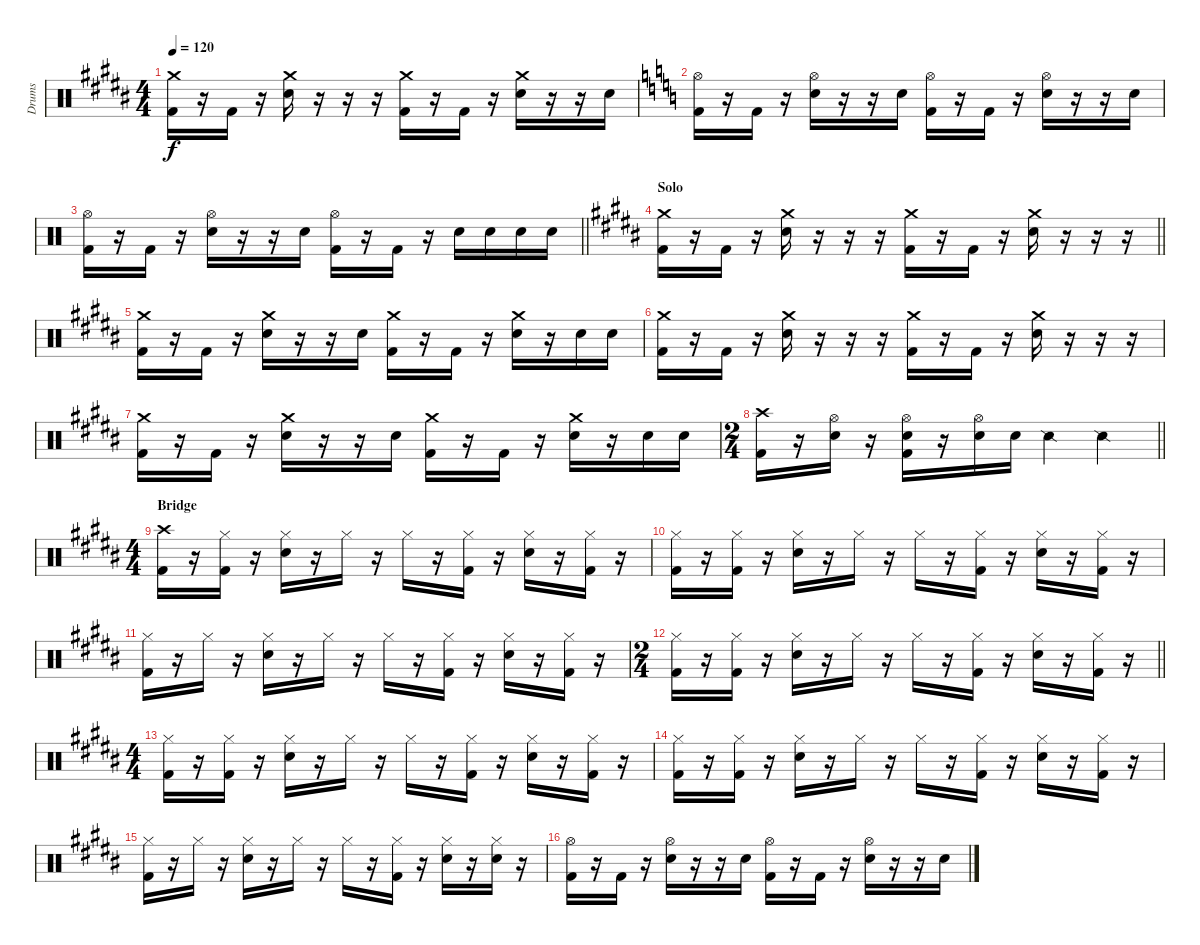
\track ("Drums" "Drums") {instrument percussion}
\staff {score}
\articulation defaults
\ts (4 4)
\tempo 120
\clef neutral
\ks b
("Crash medium (hit)" "Kick (hit) 2").16{dy f} r.16 "Kick (hit) 2".16 r.16 ("Crash medium (hit)" "Snare (hit) 2").16 r.16 r.16 r.16 ("Crash medium (hit)" "Kick (hit) 2").16 r.16 "Kick (hit) 2".16 r.16 ("Crash medium (hit)" "Snare (hit) 2").16 r.16 r.16 "Snare (hit) 2".16 |
\ks c
("Hi-Hat (open)" "Kick (hit) 2").16 r.16 "Kick (hit) 2".16 r.16 ("Hi-Hat (open)" "Snare (hit) 2").16 r.16 r.16 "Snare (hit) 2".16 ("Hi-Hat (open)" "Kick (hit) 2").16 r.16 "Kick (hit) 2".16 r.16 ("Hi-Hat (open)" "Snare (hit) 2").16 r.16 r.16 "Snare (hit) 2".16 |
\barLineRight lightlight
("Hi-Hat (open)" "Kick (hit) 2").16 r.16 "Kick (hit) 2".16 r.16 ("Hi-Hat (open)" "Snare (hit) 2").16 r.16 r.16 "Snare (hit) 2".16 ("Hi-Hat (open)" "Kick (hit) 2").16 r.16 "Kick (hit) 2".16 r.16 "Snare (hit) 2".16 "Snare (hit) 2".16 "Snare (hit) 2".16 "Snare (hit) 2".16 |
\section ("" "Solo")
\barLineRight lightlight
\ks b
("Crash medium (hit)" "Kick (hit) 2").16 r.16 "Kick (hit) 2".16 r.16 ("Crash medium (hit)" "Snare (hit) 2").16 r.16 r.16 r.16 ("Crash medium (hit)" "Kick (hit) 2").16 r.16 "Kick (hit) 2".16 r.16 ("Crash medium (hit)" "Snare (hit) 2").16 r.16 r.16 r.16 |
("Crash medium (hit)" "Kick (hit) 2").16 r.16 "Kick (hit) 2".16 r.16 ("Crash medium (hit)" "Snare (hit) 2").16 r.16 r.16 "Snare (hit) 2".16 ("Crash medium (hit)" "Kick (hit) 2").16 r.16 "Kick (hit) 2".16 r.16 ("Crash medium (hit)" "Snare (hit) 2").16 r.16 "Snare (hit) 2".16 "Snare (hit) 2".16 |
("Crash medium (hit)" "Kick (hit) 2").16 r.16 "Kick (hit) 2".16 r.16 ("Crash medium (hit)" "Snare (hit) 2").16 r.16 r.16 r.16 ("Crash medium (hit)" "Kick (hit) 2").16 r.16 "Kick (hit) 2".16 r.16 ("Crash medium (hit)" "Snare (hit) 2").16 r.16 r.16 r.16 |
("Crash medium (hit)" "Kick (hit) 2").16 r.16 "Kick (hit) 2".16 r.16 ("Crash medium (hit)" "Snare (hit) 2").16 r.16 r.16 "Snare (hit) 2".16 ("Crash medium (hit)" "Kick (hit) 2").16 r.16 "Kick (hit) 2".16 r.16 ("Crash medium (hit)" "Snare (hit) 2").16 r.16 "Snare (hit) 2".16 "Snare (hit) 2".16 |
\ts (2 4)
\barLineRight lightlight
("Crash high (hit)" "Kick (hit) 2").16 r.16 ("Hi-Hat (open)" "Snare (hit) 2").16 r.16 ("Hi-Hat (open)" "Snare (hit) 2" "Kick (hit) 2").16 r.16 ("Hi-Hat (open)" "Snare (hit) 2").16 "Snare (hit) 2".16 "Snare (side stick) 2".4 "Snare (side stick) 2".4 |
\ts (4 4)
\section ("" "Bridge")
("Crash high (hit)" "Kick (hit) 2").16 r.16 ("Hi-Hat (closed)" "Kick (hit) 2").16 r.16 ("Hi-Hat (closed)" "Snare (hit) 2").16 r.16 "Hi-Hat (closed)".16 r.16 "Hi-Hat (closed)".16 r.16 ("Hi-Hat (closed)" "Kick (hit) 2").16 r.16 ("Hi-Hat (closed)" "Snare (hit) 2").16 r.16 ("Hi-Hat (closed)" "Kick (hit) 2").16 r.16 |
("Hi-Hat (closed)" "Kick (hit) 2").16 r.16 ("Hi-Hat (closed)" "Kick (hit) 2").16 r.16 ("Hi-Hat (closed)" "Snare (hit) 2").16 r.16 "Hi-Hat (closed)".16 r.16 "Hi-Hat (closed)".16 r.16 ("Hi-Hat (closed)" "Kick (hit) 2").16 r.16 ("Hi-Hat (closed)" "Snare (hit) 2").16 r.16 ("Hi-Hat (closed)" "Kick (hit) 2").16 r.16 |
("Hi-Hat (closed)" "Kick (hit) 2").16 r.16 "Hi-Hat (closed)".16 r.16 ("Hi-Hat (closed)" "Snare (hit) 2").16 r.16 "Hi-Hat (closed)".16 r.16 "Hi-Hat (closed)".16 r.16 ("Hi-Hat (closed)" "Kick (hit) 2").16 r.16 ("Hi-Hat (closed)" "Snare (hit) 2").16 r.16 ("Hi-Hat (closed)" "Kick (hit) 2").16 r.16 |
\ts (2 4)
\barLineRight lightlight
("Hi-Hat (closed)" "Kick (hit) 2").16 r.16 ("Hi-Hat (closed)" "Kick (hit) 2").16 r.16 ("Hi-Hat (closed)" "Snare (hit) 2").16 r.16 "Hi-Hat (closed)".16 r.16 "Hi-Hat (closed)".16 r.16 ("Hi-Hat (closed)" "Kick (hit) 2").16 r.16 ("Hi-Hat (closed)" "Snare (hit) 2").16 r.16 ("Hi-Hat (closed)" "Kick (hit) 2").16 r.16 |
\ts (4 4)
("Hi-Hat (closed)" "Kick (hit) 2").16 r.16 ("Hi-Hat (closed)" "Kick (hit) 2").16 r.16 ("Hi-Hat (closed)" "Snare (hit) 2").16 r.16 "Hi-Hat (closed)".16 r.16 "Hi-Hat (closed)".16 r.16 ("Hi-Hat (closed)" "Kick (hit) 2").16 r.16 ("Hi-Hat (closed)" "Snare (hit) 2").16 r.16 ("Hi-Hat (closed)" "Kick (hit) 2").16 r.16 |
("Hi-Hat (closed)" "Kick (hit) 2").16 r.16 ("Hi-Hat (closed)" "Kick (hit) 2").16 r.16 ("Hi-Hat (closed)" "Snare (hit) 2").16 r.16 "Hi-Hat (closed)".16 r.16 "Hi-Hat (closed)".16 r.16 ("Hi-Hat (closed)" "Kick (hit) 2").16 r.16 ("Hi-Hat (closed)" "Snare (hit) 2").16 r.16 ("Hi-Hat (closed)" "Kick (hit) 2").16 r.16 |
("Hi-Hat (closed)" "Kick (hit) 2").16 r.16 "Hi-Hat (closed)".16 r.16 ("Hi-Hat (closed)" "Snare (hit) 2").16 r.16 "Hi-Hat (closed)".16 r.16 "Hi-Hat (closed)".16 r.16 ("Hi-Hat (closed)" "Kick (hit) 2").16 r.16 ("Hi-Hat (closed)" "Snare (hit) 2").16 r.16 ("Hi-Hat (closed)" "Snare (hit) 2").16 r.16 |
("Hi-Hat (open)" "Kick (hit) 2").16 r.16 "Kick (hit) 2".16 r.16 ("Hi-Hat (open)" "Snare (hit) 2").16 r.16 r.16 "Snare (hit) 2".16 ("Hi-Hat (open)" "Kick (hit) 2").16 r.16 "Kick (hit) 2".16 r.16 ("Hi-Hat (open)" "Snare (hit) 2").16 r.16 r.16 "Snare (hit) 2".16
